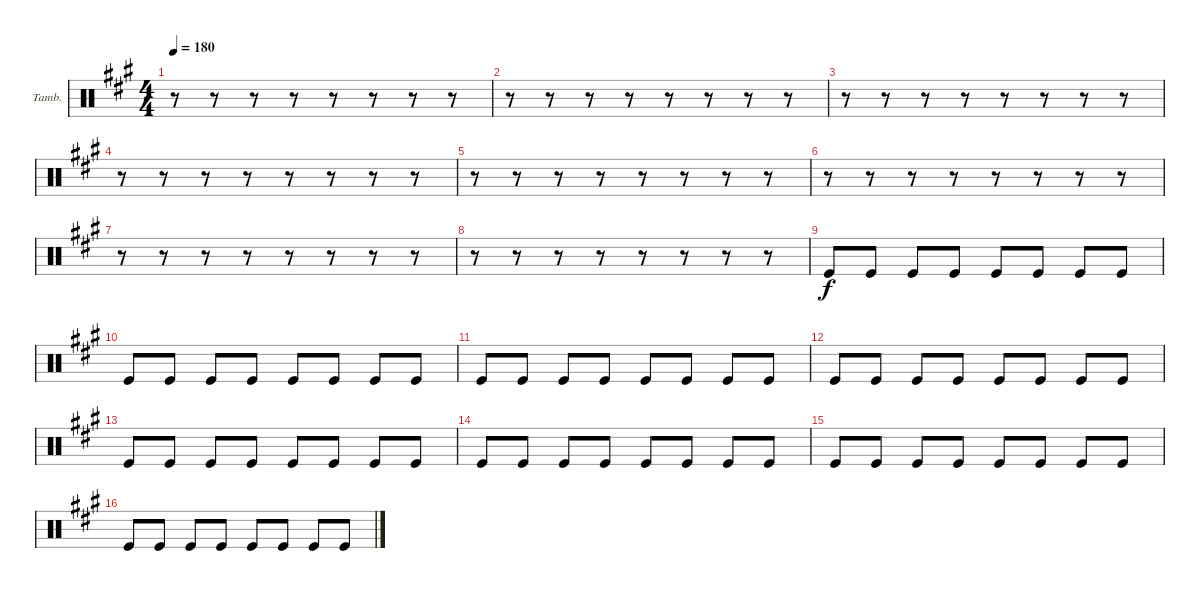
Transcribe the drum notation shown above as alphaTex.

\bracketExtendMode groupsimilarinstruments
\firstSystemTrackNameOrientation horizontal
\otherSystemsTrackNameOrientation horizontal
\track ("Tambourine" "Tamb.") {instrument percussion}
\staff {score}
\articulation defaults
\ts (4 4)
\tempo 180
\clef neutral
\ks a
r.8{dy f} r.8 r.8 r.8 r.8 r.8 r.8 r.8 |
r.8 r.8 r.8 r.8 r.8 r.8 r.8 r.8 |
r.8 r.8 r.8 r.8 r.8 r.8 r.8 r.8 |
r.8 r.8 r.8 r.8 r.8 r.8 r.8 r.8 |
r.8 r.8 r.8 r.8 r.8 r.8 r.8 r.8 |
r.8 r.8 r.8 r.8 r.8 r.8 r.8 r.8 |
r.8 r.8 r.8 r.8 r.8 r.8 r.8 r.8 |
r.8 r.8 r.8 r.8 r.8 r.8 r.8 r.8 |
"Kick (hit)".8 "Kick (hit)".8 "Kick (hit)".8 "Kick (hit)".8 "Kick (hit)".8 "Kick (hit)".8 "Kick (hit)".8 "Kick (hit)".8 |
"Kick (hit)".8 "Kick (hit)".8 "Kick (hit)".8 "Kick (hit)".8 "Kick (hit)".8 "Kick (hit)".8 "Kick (hit)".8 "Kick (hit)".8 |
"Kick (hit)".8 "Kick (hit)".8 "Kick (hit)".8 "Kick (hit)".8 "Kick (hit)".8 "Kick (hit)".8 "Kick (hit)".8 "Kick (hit)".8 |
"Kick (hit)".8 "Kick (hit)".8 "Kick (hit)".8 "Kick (hit)".8 "Kick (hit)".8 "Kick (hit)".8 "Kick (hit)".8 "Kick (hit)".8 |
"Kick (hit)".8 "Kick (hit)".8 "Kick (hit)".8 "Kick (hit)".8 "Kick (hit)".8 "Kick (hit)".8 "Kick (hit)".8 "Kick (hit)".8 |
"Kick (hit)".8 "Kick (hit)".8 "Kick (hit)".8 "Kick (hit)".8 "Kick (hit)".8 "Kick (hit)".8 "Kick (hit)".8 "Kick (hit)".8 |
"Kick (hit)".8 "Kick (hit)".8 "Kick (hit)".8 "Kick (hit)".8 "Kick (hit)".8 "Kick (hit)".8 "Kick (hit)".8 "Kick (hit)".8 |
"Kick (hit)".8 "Kick (hit)".8 "Kick (hit)".8 "Kick (hit)".8 "Kick (hit)".8 "Kick (hit)".8 "Kick (hit)".8 "Kick (hit)".8
